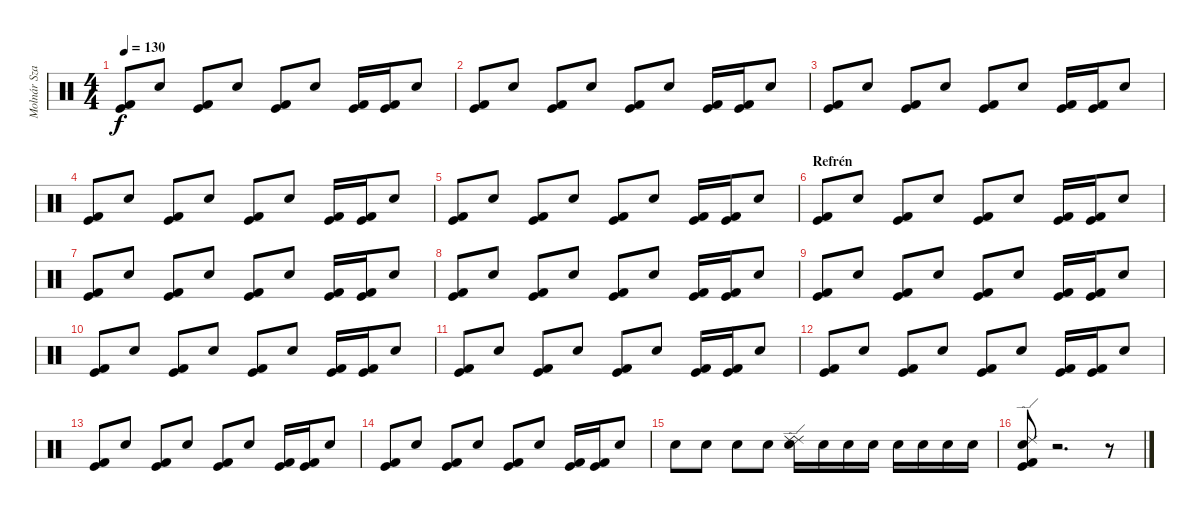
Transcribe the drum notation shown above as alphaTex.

\track ("Molnár Szabolcs" "Molnár Sza") {instrument percussion}
\staff {score}
\articulation defaults
\ts (4 4)
\tempo 130
\clef neutral
\ks c
("Kick (hit)" "Kick (hit) 2").8{dy f} "Snare (hit) 2".8 ("Kick (hit)" "Kick (hit) 2").8 "Snare (hit) 2".8 ("Kick (hit)" "Kick (hit) 2").8 "Snare (hit) 2".8 ("Kick (hit)" "Kick (hit) 2").16 ("Kick (hit)" "Kick (hit) 2").16 "Snare (hit) 2".8 |
("Kick (hit)" "Kick (hit) 2").8 "Snare (hit) 2".8 ("Kick (hit)" "Kick (hit) 2").8 "Snare (hit) 2".8 ("Kick (hit)" "Kick (hit) 2").8 "Snare (hit) 2".8 ("Kick (hit)" "Kick (hit) 2").16 ("Kick (hit)" "Kick (hit) 2").16 "Snare (hit) 2".8 |
("Kick (hit)" "Kick (hit) 2").8 "Snare (hit) 2".8 ("Kick (hit)" "Kick (hit) 2").8 "Snare (hit) 2".8 ("Kick (hit)" "Kick (hit) 2").8 "Snare (hit) 2".8 ("Kick (hit)" "Kick (hit) 2").16 ("Kick (hit)" "Kick (hit) 2").16 "Snare (hit) 2".8 |
("Kick (hit)" "Kick (hit) 2").8 "Snare (hit) 2".8 ("Kick (hit)" "Kick (hit) 2").8 "Snare (hit) 2".8 ("Kick (hit)" "Kick (hit) 2").8 "Snare (hit) 2".8 ("Kick (hit)" "Kick (hit) 2").16 ("Kick (hit)" "Kick (hit) 2").16 "Snare (hit) 2".8 |
("Kick (hit)" "Kick (hit) 2").8 "Snare (hit) 2".8 ("Kick (hit)" "Kick (hit) 2").8 "Snare (hit) 2".8 ("Kick (hit)" "Kick (hit) 2").8 "Snare (hit) 2".8 ("Kick (hit)" "Kick (hit) 2").16 ("Kick (hit)" "Kick (hit) 2").16 "Snare (hit) 2".8 |
\section ("" "Refrén")
("Kick (hit)" "Kick (hit) 2").8 "Snare (hit) 2".8 ("Kick (hit)" "Kick (hit) 2").8 "Snare (hit) 2".8 ("Kick (hit)" "Kick (hit) 2").8 "Snare (hit) 2".8 ("Kick (hit)" "Kick (hit) 2").16 ("Kick (hit)" "Kick (hit) 2").16 "Snare (hit) 2".8 |
("Kick (hit)" "Kick (hit) 2").8 "Snare (hit) 2".8 ("Kick (hit)" "Kick (hit) 2").8 "Snare (hit) 2".8 ("Kick (hit)" "Kick (hit) 2").8 "Snare (hit) 2".8 ("Kick (hit)" "Kick (hit) 2").16 ("Kick (hit)" "Kick (hit) 2").16 "Snare (hit) 2".8 |
("Kick (hit)" "Kick (hit) 2").8 "Snare (hit) 2".8 ("Kick (hit)" "Kick (hit) 2").8 "Snare (hit) 2".8 ("Kick (hit)" "Kick (hit) 2").8 "Snare (hit) 2".8 ("Kick (hit)" "Kick (hit) 2").16 ("Kick (hit)" "Kick (hit) 2").16 "Snare (hit) 2".8 |
("Kick (hit)" "Kick (hit) 2").8 "Snare (hit) 2".8 ("Kick (hit)" "Kick (hit) 2").8 "Snare (hit) 2".8 ("Kick (hit)" "Kick (hit) 2").8 "Snare (hit) 2".8 ("Kick (hit)" "Kick (hit) 2").16 ("Kick (hit)" "Kick (hit) 2").16 "Snare (hit) 2".8 |
("Kick (hit)" "Kick (hit) 2").8 "Snare (hit) 2".8 ("Kick (hit)" "Kick (hit) 2").8 "Snare (hit) 2".8 ("Kick (hit)" "Kick (hit) 2").8 "Snare (hit) 2".8 ("Kick (hit)" "Kick (hit) 2").16 ("Kick (hit)" "Kick (hit) 2").16 "Snare (hit) 2".8 |
("Kick (hit)" "Kick (hit) 2").8 "Snare (hit) 2".8 ("Kick (hit)" "Kick (hit) 2").8 "Snare (hit) 2".8 ("Kick (hit)" "Kick (hit) 2").8 "Snare (hit) 2".8 ("Kick (hit)" "Kick (hit) 2").16 ("Kick (hit)" "Kick (hit) 2").16 "Snare (hit) 2".8 |
("Kick (hit)" "Kick (hit) 2").8 "Snare (hit) 2".8 ("Kick (hit)" "Kick (hit) 2").8 "Snare (hit) 2".8 ("Kick (hit)" "Kick (hit) 2").8 "Snare (hit) 2".8 ("Kick (hit)" "Kick (hit) 2").16 ("Kick (hit)" "Kick (hit) 2").16 "Snare (hit) 2".8 |
("Kick (hit)" "Kick (hit) 2").8 "Snare (hit) 2".8 ("Kick (hit)" "Kick (hit) 2").8 "Snare (hit) 2".8 ("Kick (hit)" "Kick (hit) 2").8 "Snare (hit) 2".8 ("Kick (hit)" "Kick (hit) 2").16 ("Kick (hit)" "Kick (hit) 2").16 "Snare (hit) 2".8 |
("Kick (hit)" "Kick (hit) 2").8 "Snare (hit) 2".8 ("Kick (hit)" "Kick (hit) 2").8 "Snare (hit) 2".8 ("Kick (hit)" "Kick (hit) 2").8 "Snare (hit) 2".8 ("Kick (hit)" "Kick (hit) 2").16 ("Kick (hit)" "Kick (hit) 2").16 "Snare (hit) 2".8 |
"Snare (hit) 2".8 "Snare (hit) 2".8 "Snare (hit) 2".8 "Snare (hit) 2".8 ("Snare (hit) 2" "Ride (edge) 2" "Ride (edge) 2").16 "Snare (hit) 2".16 "Snare (hit) 2".16 "Snare (hit) 2".16 "Snare (hit) 2".16 "Snare (hit) 2".16 "Snare (hit) 2".16 "Snare (hit) 2".16 |
("Snare (hit) 2" "Kick (hit) 2" "Kick (hit)" "Ride (edge) 2").8 r.2{d} r.8
